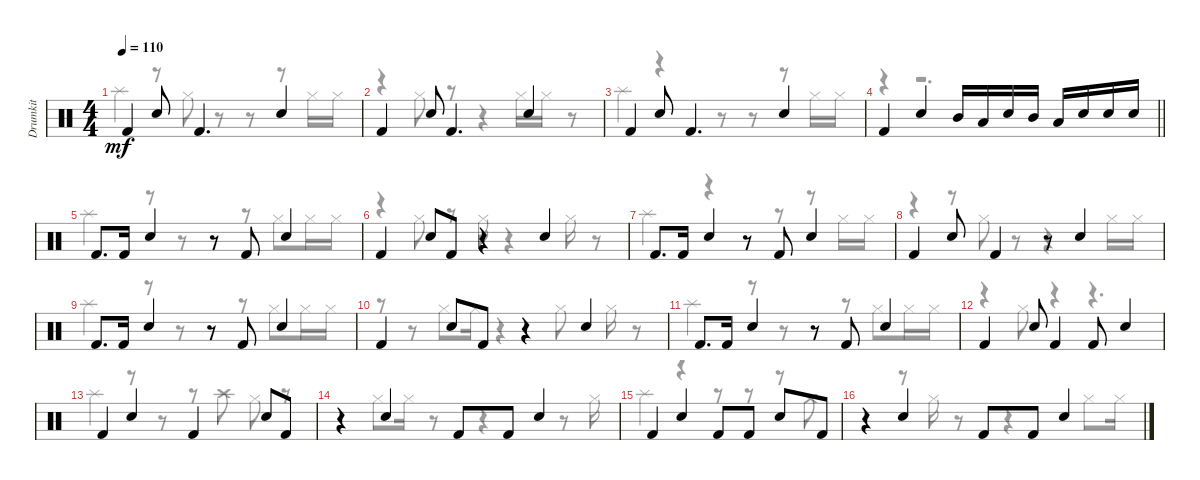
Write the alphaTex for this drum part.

\track ("Drumkit" "Drumkit") {instrument percussion}
\staff {score}
\articulation defaults
\voice
\ts (4 4)
\tempo 110
\clef neutral
\ks c "Kick (hit) 2".4{dy mf} "Snare (hit) 2".8 "Kick (hit) 2".4{d} "Snare (hit) 2".4
|
"Kick (hit) 2".4 "Snare (hit) 2".8 "Kick (hit) 2".4{d} "Snare (hit) 2".4 |
"Kick (hit) 2".4 "Snare (hit) 2".8 "Kick (hit) 2".4{d} "Snare (hit) 2".4 |
\barLineRight lightlight "Kick (hit) 2".4 "Snare (hit) 2".4 "Mid Tom (hit)".16 "Low Tom (hit)".16 "Snare (hit) 2".16 "Mid Tom (hit)".16 "Low Tom (hit)".16 "Snare (hit) 2".16 "Snare (hit) 2".16 "Snare (hit) 2".16
|
"Kick (hit) 2".8{d} "Kick (hit) 2".16 "Snare (hit) 2".4 r.8 "Kick (hit) 2".8 "Snare (hit) 2".4 |
"Kick (hit) 2".4 "Snare (hit) 2".8 "Kick (hit) 2".8 r.4 "Snare (hit) 2".4 |
"Kick (hit) 2".8{d} "Kick (hit) 2".16 "Snare (hit) 2".4 r.8 "Kick (hit) 2".8 "Snare (hit) 2".4 |
"Kick (hit) 2".4 "Snare (hit) 2".8 "Kick (hit) 2".4 r.8 "Snare (hit) 2".4 |
"Kick (hit) 2".8{d} "Kick (hit) 2".16 "Snare (hit) 2".4 r.8 "Kick (hit) 2".8 "Snare (hit) 2".4 |
"Kick (hit) 2".4 "Snare (hit) 2".8 "Kick (hit) 2".8 r.4 "Snare (hit) 2".4 |
"Kick (hit) 2".8{d} "Kick (hit) 2".16 "Snare (hit) 2".4 r.8 "Kick (hit) 2".8 "Snare (hit) 2".4 |
"Kick (hit) 2".4 "Snare (hit) 2".8 "Kick (hit) 2".4 "Kick (hit) 2".8 "Snare (hit) 2".4 |
"Kick (hit) 2".4 "Snare (hit) 2".4 "Kick (hit) 2".4 "Snare (hit) 2".8 "Kick (hit) 2".8 |
r.4 "Snare (hit) 2".4 "Kick (hit) 2".8 "Kick (hit) 2".8 "Snare (hit) 2".4 |
"Kick (hit) 2".4 "Snare (hit) 2".4 "Kick (hit) 2".8 "Kick (hit) 2".8 "Snare (hit) 2".8 "Kick (hit) 2".8 |
r.4 "Snare (hit) 2".4 "Kick (hit) 2".8 "Kick (hit) 2".8 "Snare (hit) 2".4
\voice
\clef neutral
\ottava regular
\simile none
\ks c "Splash (hit)".4{dy mf}
r.8 "Hi-Hat (closed)".8 r.8 r.8 r.8 "Hi-Hat (closed)".16 "Hi-Hat (closed)".16 |
r.4 "Hi-Hat (closed)".8 r.8 r.4 "Hi-Hat (closed)".16 "Hi-Hat (closed)".16 r.8 |
"Splash (hit)".4 r.4 r.8 r.8 r.8 "Hi-Hat (closed)".16 "Hi-Hat (closed)".16 |
\barLineRight lightlight
r.4 r.2{d} |
"Splash (hit)".4 r.8 r.8 r.8 r.8 "Hi-Hat (closed)".8 "Hi-Hat (closed)".16 "Hi-Hat (closed)".16 |
r.4 "Hi-Hat (closed)".8 r.8 "Hi-Hat (closed)".16 r.4 "Hi-Hat (closed)".16 r.8 |
"Splash (hit)".4 r.4 r.8 r.8 r.8 "Hi-Hat (closed)".16 "Hi-Hat (closed)".16 |
r.4 r.8 "Hi-Hat (closed)".8 r.8 r.4 "Hi-Hat (closed)".16 "Hi-Hat (closed)".16 |
"Splash (hit)".4 r.8 r.8 r.8 r.8 "Hi-Hat (closed)".8 "Hi-Hat (closed)".16 "Hi-Hat (closed)".16 |
r.8 r.8 "Hi-Hat (closed)".8 "Hi-Hat (closed)".16 r.4 "Hi-Hat (closed)".8 "Hi-Hat (closed)".16 r.8 |
"Splash (hit)".4 r.8 r.8 r.8 r.8 "Hi-Hat (closed)".8 "Hi-Hat (closed)".16 "Hi-Hat (closed)".16 |
r.4 "Hi-Hat (closed)".8 r.4 r.4{d} |
"Splash (hit)".4 r.8 r.8 r.8 "Crash high (hit)".8 "Hi-Hat (closed)".8 r.8 |
r.4 "Hi-Hat (closed)".8 "Hi-Hat (closed)".16 r.8 r.4 r.8 "Hi-Hat (closed)".16 |
"Splash (hit)".4 r.4 r.8 r.8 r.8 "Crash medium (hit)".8 |
r.4 r.8 "Hi-Hat (closed)".16 r.8 r.4 "Hi-Hat (closed)".8 "Hi-Hat (closed)".16
